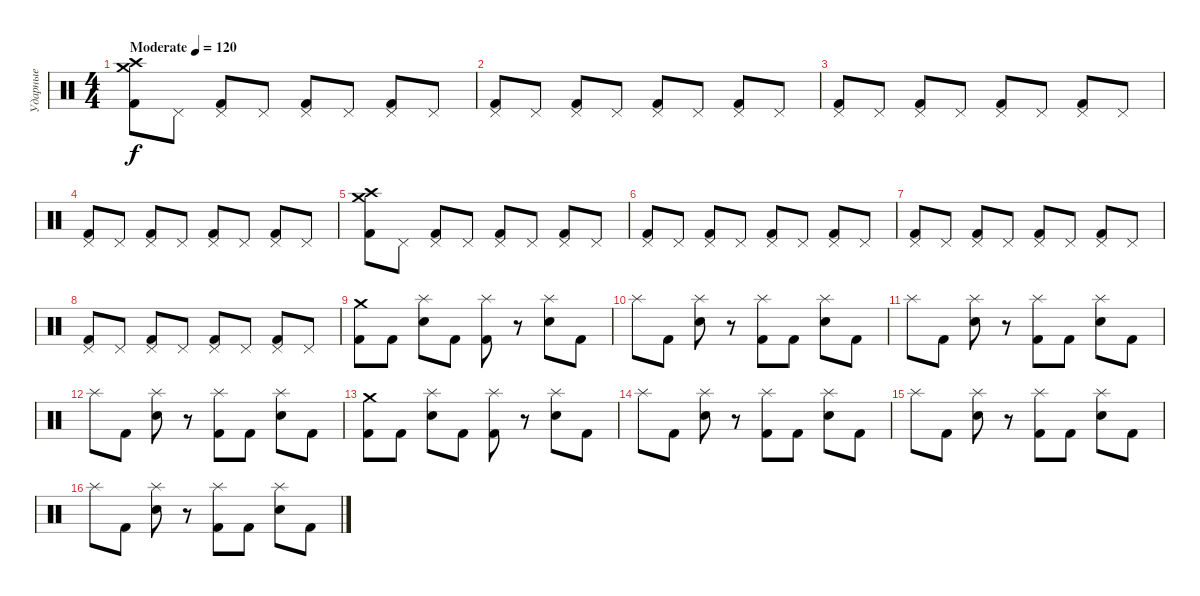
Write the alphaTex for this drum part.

\track ("Ударные" "Ударные") {instrument percussion}
\staff {score}
\articulation defaults
\ts (4 4)
\tempo (120 "Moderate")
\clef neutral
\ks c
("Crash medium (hit)" "Crash high (hit)" "Kick (hit) 2").8{dy f} "Pedal Hi-Hat (hit)".8 ("Pedal Hi-Hat (hit)" "Kick (hit) 2").8 "Pedal Hi-Hat (hit)".8 ("Pedal Hi-Hat (hit)" "Kick (hit) 2").8 "Pedal Hi-Hat (hit)".8 ("Pedal Hi-Hat (hit)" "Kick (hit) 2").8 "Pedal Hi-Hat (hit)".8 |
("Pedal Hi-Hat (hit)" "Kick (hit) 2").8 "Pedal Hi-Hat (hit)".8 ("Pedal Hi-Hat (hit)" "Kick (hit) 2").8 "Pedal Hi-Hat (hit)".8 ("Pedal Hi-Hat (hit)" "Kick (hit) 2").8 "Pedal Hi-Hat (hit)".8 ("Pedal Hi-Hat (hit)" "Kick (hit) 2").8 "Pedal Hi-Hat (hit)".8 |
("Pedal Hi-Hat (hit)" "Kick (hit) 2").8 "Pedal Hi-Hat (hit)".8 ("Pedal Hi-Hat (hit)" "Kick (hit) 2").8 "Pedal Hi-Hat (hit)".8 ("Pedal Hi-Hat (hit)" "Kick (hit) 2").8 "Pedal Hi-Hat (hit)".8 ("Pedal Hi-Hat (hit)" "Kick (hit) 2").8 "Pedal Hi-Hat (hit)".8 |
("Pedal Hi-Hat (hit)" "Kick (hit) 2").8 "Pedal Hi-Hat (hit)".8 ("Pedal Hi-Hat (hit)" "Kick (hit) 2").8 "Pedal Hi-Hat (hit)".8 ("Pedal Hi-Hat (hit)" "Kick (hit) 2").8 "Pedal Hi-Hat (hit)".8 ("Pedal Hi-Hat (hit)" "Kick (hit) 2").8 "Pedal Hi-Hat (hit)".8 |
("Crash medium (hit)" "Crash high (hit)" "Kick (hit) 2").8 "Pedal Hi-Hat (hit)".8 ("Pedal Hi-Hat (hit)" "Kick (hit) 2").8 "Pedal Hi-Hat (hit)".8 ("Pedal Hi-Hat (hit)" "Kick (hit) 2").8 "Pedal Hi-Hat (hit)".8 ("Pedal Hi-Hat (hit)" "Kick (hit) 2").8 "Pedal Hi-Hat (hit)".8 |
("Pedal Hi-Hat (hit)" "Kick (hit) 2").8 "Pedal Hi-Hat (hit)".8 ("Pedal Hi-Hat (hit)" "Kick (hit) 2").8 "Pedal Hi-Hat (hit)".8 ("Pedal Hi-Hat (hit)" "Kick (hit) 2").8 "Pedal Hi-Hat (hit)".8 ("Pedal Hi-Hat (hit)" "Kick (hit) 2").8 "Pedal Hi-Hat (hit)".8 |
("Pedal Hi-Hat (hit)" "Kick (hit) 2").8 "Pedal Hi-Hat (hit)".8 ("Pedal Hi-Hat (hit)" "Kick (hit) 2").8 "Pedal Hi-Hat (hit)".8 ("Pedal Hi-Hat (hit)" "Kick (hit) 2").8 "Pedal Hi-Hat (hit)".8 ("Pedal Hi-Hat (hit)" "Kick (hit) 2").8 "Pedal Hi-Hat (hit)".8 |
("Pedal Hi-Hat (hit)" "Kick (hit) 2").8 "Pedal Hi-Hat (hit)".8 ("Pedal Hi-Hat (hit)" "Kick (hit) 2").8 "Pedal Hi-Hat (hit)".8 ("Pedal Hi-Hat (hit)" "Kick (hit) 2").8 "Pedal Hi-Hat (hit)".8 ("Pedal Hi-Hat (hit)" "Kick (hit) 2").8 "Pedal Hi-Hat (hit)".8 |
("Crash medium (hit)" "Kick (hit) 2").8 "Kick (hit) 2".8 ("Splash (hit)" "Electric Snare (hit)").8 "Kick (hit) 2".8 ("Splash (hit)" "Kick (hit) 2").8 r.8 ("Splash (hit)" "Electric Snare (hit)").8 "Kick (hit) 2".8 |
"Splash (hit)".8 "Kick (hit) 2".8 ("Splash (hit)" "Electric Snare (hit)").8 r.8 ("Splash (hit)" "Kick (hit) 2").8 "Kick (hit) 2".8 ("Splash (hit)" "Electric Snare (hit)").8 "Kick (hit) 2".8 |
"Splash (hit)".8 "Kick (hit) 2".8 ("Splash (hit)" "Electric Snare (hit)").8 r.8 ("Splash (hit)" "Kick (hit) 2").8 "Kick (hit) 2".8 ("Splash (hit)" "Electric Snare (hit)").8 "Kick (hit) 2".8 |
"Splash (hit)".8 "Kick (hit) 2".8 ("Splash (hit)" "Electric Snare (hit)").8 r.8 ("Splash (hit)" "Kick (hit) 2").8 "Kick (hit) 2".8 ("Splash (hit)" "Electric Snare (hit)").8 "Kick (hit) 2".8 |
("Crash medium (hit)" "Kick (hit) 2").8 "Kick (hit) 2".8 ("Splash (hit)" "Electric Snare (hit)").8 "Kick (hit) 2".8 ("Splash (hit)" "Kick (hit) 2").8 r.8 ("Splash (hit)" "Electric Snare (hit)").8 "Kick (hit) 2".8 |
"Splash (hit)".8 "Kick (hit) 2".8 ("Splash (hit)" "Electric Snare (hit)").8 r.8 ("Splash (hit)" "Kick (hit) 2").8 "Kick (hit) 2".8 ("Splash (hit)" "Electric Snare (hit)").8 "Kick (hit) 2".8 |
"Splash (hit)".8 "Kick (hit) 2".8 ("Splash (hit)" "Electric Snare (hit)").8 r.8 ("Splash (hit)" "Kick (hit) 2").8 "Kick (hit) 2".8 ("Splash (hit)" "Electric Snare (hit)").8 "Kick (hit) 2".8 |
"Splash (hit)".8 "Kick (hit) 2".8 ("Splash (hit)" "Electric Snare (hit)").8 r.8 ("Splash (hit)" "Kick (hit) 2").8 "Kick (hit) 2".8 ("Splash (hit)" "Electric Snare (hit)").8 "Kick (hit) 2".8
